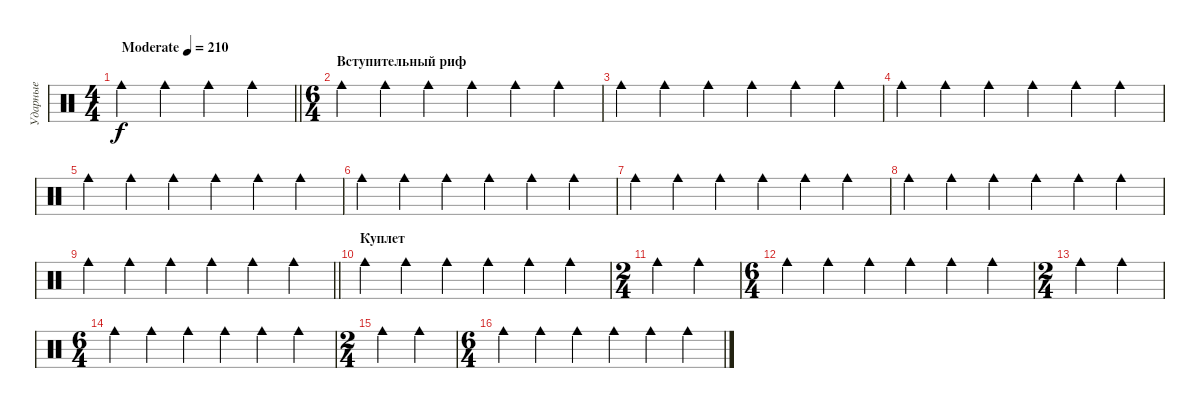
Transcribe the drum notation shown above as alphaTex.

\track ("Ударные" "Ударные") {mute instrument percussion}
\staff {score}
\articulation defaults
\ts (4 4)
\tempo (210 "Moderate")
\clef neutral
\barLineRight lightlight
\ks c "Cowbell medium (hit)".4{dy f} "Cowbell medium (hit)".4 "Cowbell medium (hit)".4 "Cowbell medium (hit)".4
|
\ts (6 4)
\section ("" "Вступительный риф")
"Cowbell medium (hit)".4 "Cowbell medium (hit)".4 "Cowbell medium (hit)".4 "Cowbell medium (hit)".4 "Cowbell medium (hit)".4 "Cowbell medium (hit)".4 |
"Cowbell medium (hit)".4 "Cowbell medium (hit)".4 "Cowbell medium (hit)".4 "Cowbell medium (hit)".4 "Cowbell medium (hit)".4 "Cowbell medium (hit)".4 |
"Cowbell medium (hit)".4 "Cowbell medium (hit)".4 "Cowbell medium (hit)".4 "Cowbell medium (hit)".4 "Cowbell medium (hit)".4 "Cowbell medium (hit)".4 |
"Cowbell medium (hit)".4 "Cowbell medium (hit)".4 "Cowbell medium (hit)".4 "Cowbell medium (hit)".4 "Cowbell medium (hit)".4 "Cowbell medium (hit)".4 |
"Cowbell medium (hit)".4 "Cowbell medium (hit)".4 "Cowbell medium (hit)".4 "Cowbell medium (hit)".4 "Cowbell medium (hit)".4 "Cowbell medium (hit)".4 |
"Cowbell medium (hit)".4 "Cowbell medium (hit)".4 "Cowbell medium (hit)".4 "Cowbell medium (hit)".4 "Cowbell medium (hit)".4 "Cowbell medium (hit)".4 |
"Cowbell medium (hit)".4 "Cowbell medium (hit)".4 "Cowbell medium (hit)".4 "Cowbell medium (hit)".4 "Cowbell medium (hit)".4 "Cowbell medium (hit)".4 |
\barLineRight lightlight "Cowbell medium (hit)".4 "Cowbell medium (hit)".4 "Cowbell medium (hit)".4 "Cowbell medium (hit)".4 "Cowbell medium (hit)".4 "Cowbell medium (hit)".4
|
\section ("" "Куплет")
"Cowbell medium (hit)".4 "Cowbell medium (hit)".4 "Cowbell medium (hit)".4 "Cowbell medium (hit)".4 "Cowbell medium (hit)".4 "Cowbell medium (hit)".4 |
\ts (2 4)
"Cowbell medium (hit)".4 "Cowbell medium (hit)".4 |
\ts (6 4)
"Cowbell medium (hit)".4 "Cowbell medium (hit)".4 "Cowbell medium (hit)".4 "Cowbell medium (hit)".4 "Cowbell medium (hit)".4 "Cowbell medium (hit)".4 |
\ts (2 4)
"Cowbell medium (hit)".4 "Cowbell medium (hit)".4 |
\ts (6 4)
"Cowbell medium (hit)".4 "Cowbell medium (hit)".4 "Cowbell medium (hit)".4 "Cowbell medium (hit)".4 "Cowbell medium (hit)".4 "Cowbell medium (hit)".4 |
\ts (2 4)
"Cowbell medium (hit)".4 "Cowbell medium (hit)".4 |
\ts (6 4)
"Cowbell medium (hit)".4 "Cowbell medium (hit)".4 "Cowbell medium (hit)".4 "Cowbell medium (hit)".4 "Cowbell medium (hit)".4 "Cowbell medium (hit)".4
